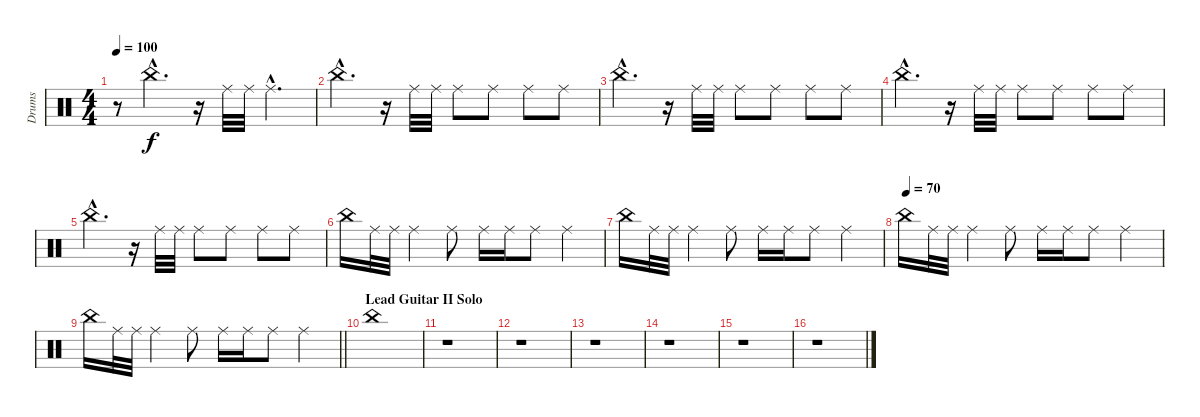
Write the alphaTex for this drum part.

\track ("Drums" "Drums") {instrument percussion}
\staff {score}
\articulation defaults
\ts (4 4)
\tempo 100
\clef neutral
\ks c
r.8{dy f} "China (hit)"{hac}.4{d} r.16 "Ride (middle)".32 "Ride (middle)".32 "Ride (middle)"{hac}.4{d} |
"China (hit)"{hac}.4{d} r.16 "Ride (middle)".32 "Ride (middle)".32 "Ride (middle)".8 "Ride (middle)".8 "Ride (middle)".8 "Ride (middle)".8 |
"China (hit)"{hac}.4{d} r.16 "Ride (middle)".32 "Ride (middle)".32 "Ride (middle)".8 "Ride (middle)".8 "Ride (middle)".8 "Ride (middle)".8 |
"China (hit)"{hac}.4{d} r.16 "Ride (middle)".32 "Ride (middle)".32 "Ride (middle)".8 "Ride (middle)".8 "Ride (middle)".8 "Ride (middle)".8 |
"China (hit)"{hac}.4{d} r.16 "Ride (middle)".32 "Ride (middle)".32 "Ride (middle)".8 "Ride (middle)".8 "Ride (middle)".8 "Ride (middle)".8 |
"China (hit)".16 "Ride (middle)".32 "Ride (middle)".32 "Ride (middle)".4 "Ride (middle)".8 "Ride (middle)".16 "Ride (middle)".16 "Ride (middle)".8 "Ride (middle)".4 |
"China (hit)".16 "Ride (middle)".32 "Ride (middle)".32 "Ride (middle)".4 "Ride (middle)".8 "Ride (middle)".16 "Ride (middle)".16 "Ride (middle)".8 "Ride (middle)".4 |
\tempo (70)
"China (hit)".16 "Ride (middle)".32 "Ride (middle)".32 "Ride (middle)".4 "Ride (middle)".8 "Ride (middle)".16 "Ride (middle)".16 "Ride (middle)".8 "Ride (middle)".4 |
\barLineRight lightlight "China (hit)".16 "Ride (middle)".32 "Ride (middle)".32 "Ride (middle)".4 "Ride (middle)".8 "Ride (middle)".16 "Ride (middle)".16 "Ride (middle)".8 "Ride (middle)".4
|
\section ("" "Lead Guitar II Solo")
"China (hit)".1 |
r.1 |
r.1 |
r.1 |
r.1 |
r.1 |
r.1
